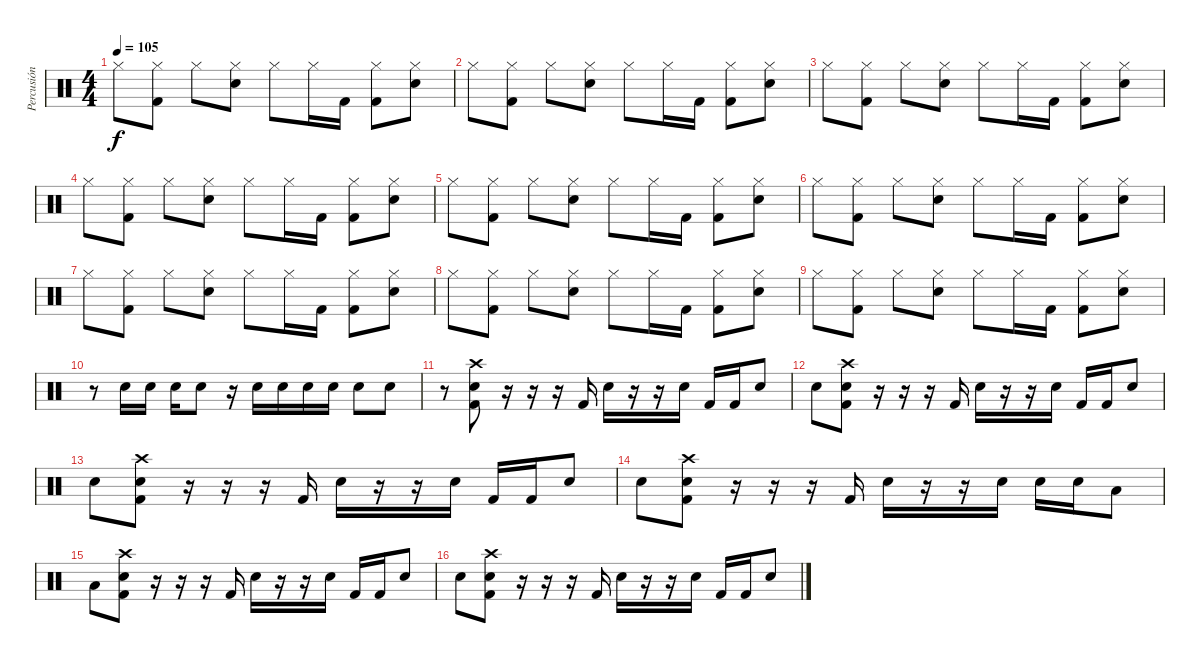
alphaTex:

\track ("Percusión" "Percusión") {instrument percussion}
\staff {score}
\articulation defaults
\ts (4 4)
\tempo 105
\clef neutral
\ks c "Hi-Hat (closed)".8{dy f}
("Hi-Hat (closed)" "Kick (hit) 2").8 "Hi-Hat (closed)".8 ("Hi-Hat (closed)" "Electric Snare (hit)").8 "Hi-Hat (closed)".8 "Hi-Hat (closed)".16 "Kick (hit) 2".16 ("Hi-Hat (closed)" "Kick (hit) 2").8 ("Hi-Hat (closed)" "Electric Snare (hit)").8 |
"Hi-Hat (closed)".8 ("Hi-Hat (closed)" "Kick (hit) 2").8 "Hi-Hat (closed)".8 ("Hi-Hat (closed)" "Electric Snare (hit)").8 "Hi-Hat (closed)".8 "Hi-Hat (closed)".16 "Kick (hit) 2".16 ("Hi-Hat (closed)" "Kick (hit) 2").8 ("Hi-Hat (closed)" "Electric Snare (hit)").8 |
"Hi-Hat (closed)".8 ("Hi-Hat (closed)" "Kick (hit) 2").8 "Hi-Hat (closed)".8 ("Hi-Hat (closed)" "Electric Snare (hit)").8 "Hi-Hat (closed)".8 "Hi-Hat (closed)".16 "Kick (hit) 2".16 ("Hi-Hat (closed)" "Kick (hit) 2").8 ("Hi-Hat (closed)" "Electric Snare (hit)").8 |
"Hi-Hat (closed)".8 ("Hi-Hat (closed)" "Kick (hit) 2").8 "Hi-Hat (closed)".8 ("Hi-Hat (closed)" "Electric Snare (hit)").8 "Hi-Hat (closed)".8 "Hi-Hat (closed)".16 "Kick (hit) 2".16 ("Hi-Hat (closed)" "Kick (hit) 2").8 ("Hi-Hat (closed)" "Electric Snare (hit)").8 |
"Hi-Hat (closed)".8 ("Hi-Hat (closed)" "Kick (hit) 2").8 "Hi-Hat (closed)".8 ("Hi-Hat (closed)" "Electric Snare (hit)").8 "Hi-Hat (closed)".8 "Hi-Hat (closed)".16 "Kick (hit) 2".16 ("Hi-Hat (closed)" "Kick (hit) 2").8 ("Hi-Hat (closed)" "Electric Snare (hit)").8 |
"Hi-Hat (closed)".8 ("Hi-Hat (closed)" "Kick (hit) 2").8 "Hi-Hat (closed)".8 ("Hi-Hat (closed)" "Electric Snare (hit)").8 "Hi-Hat (closed)".8 "Hi-Hat (closed)".16 "Kick (hit) 2".16 ("Hi-Hat (closed)" "Kick (hit) 2").8 ("Hi-Hat (closed)" "Electric Snare (hit)").8 |
"Hi-Hat (closed)".8 ("Hi-Hat (closed)" "Kick (hit) 2").8 "Hi-Hat (closed)".8 ("Hi-Hat (closed)" "Electric Snare (hit)").8 "Hi-Hat (closed)".8 "Hi-Hat (closed)".16 "Kick (hit) 2".16 ("Hi-Hat (closed)" "Kick (hit) 2").8 ("Hi-Hat (closed)" "Electric Snare (hit)").8 |
"Hi-Hat (closed)".8 ("Hi-Hat (closed)" "Kick (hit) 2").8 "Hi-Hat (closed)".8 ("Hi-Hat (closed)" "Electric Snare (hit)").8 "Hi-Hat (closed)".8 "Hi-Hat (closed)".16 "Kick (hit) 2".16 ("Hi-Hat (closed)" "Kick (hit) 2").8 ("Hi-Hat (closed)" "Electric Snare (hit)").8 |
"Hi-Hat (closed)".8 ("Hi-Hat (closed)" "Kick (hit) 2").8 "Hi-Hat (closed)".8 ("Hi-Hat (closed)" "Electric Snare (hit)").8 "Hi-Hat (closed)".8 "Hi-Hat (closed)".16 "Kick (hit) 2".16 ("Hi-Hat (closed)" "Kick (hit) 2").8 ("Hi-Hat (closed)" "Electric Snare (hit)").8 |
r.8 "Electric Snare (hit)".16 "Electric Snare (hit)".16 "Electric Snare (hit)".16 "Electric Snare (hit)".8 r.16 "Electric Snare (hit)".16 "Electric Snare (hit)".16 "Electric Snare (hit)".16 "Electric Snare (hit)".16 "Snare (hit)".8 "Snare (hit)".8 |
r.8 ("Crash high (hit)" "Electric Snare (hit)" "Kick (hit) 2").8 r.16 r.16 r.16 "Kick (hit) 2".16 "Electric Snare (hit)".16 r.16 r.16 "Electric Snare (hit)".16 "Kick (hit) 2".16 "Kick (hit) 2".16 "Electric Snare (hit)".8 |
"Electric Snare (hit)".8 ("Crash high (hit)" "Electric Snare (hit)" "Kick (hit) 2").8 r.16 r.16 r.16 "Kick (hit) 2".16 "Electric Snare (hit)".16 r.16 r.16 "Electric Snare (hit)".16 "Kick (hit) 2".16 "Kick (hit) 2".16 "Electric Snare (hit)".8 |
"Electric Snare (hit)".8 ("Crash high (hit)" "Electric Snare (hit)" "Kick (hit) 2").8 r.16 r.16 r.16 "Kick (hit) 2".16 "Electric Snare (hit)".16 r.16 r.16 "Electric Snare (hit)".16 "Kick (hit) 2".16 "Kick (hit) 2".16 "Electric Snare (hit)".8 |
"Electric Snare (hit)".8 ("Crash high (hit)" "Electric Snare (hit)" "Kick (hit) 2").8 r.16 r.16 r.16 "Kick (hit) 2".16 "Electric Snare (hit)".16 r.16 r.16 "Electric Snare (hit)".16 "Electric Snare (hit)".16 "Electric Snare (hit)".16 "Low Tom (hit)".8 |
"Low Tom (hit)".8 ("Crash high (hit)" "Electric Snare (hit)" "Kick (hit) 2").8 r.16 r.16 r.16 "Kick (hit) 2".16 "Electric Snare (hit)".16 r.16 r.16 "Electric Snare (hit)".16 "Kick (hit) 2".16 "Kick (hit) 2".16 "Electric Snare (hit)".8 |
"Electric Snare (hit)".8 ("Crash high (hit)" "Electric Snare (hit)" "Kick (hit) 2").8 r.16 r.16 r.16 "Kick (hit) 2".16 "Electric Snare (hit)".16 r.16 r.16 "Electric Snare (hit)".16 "Kick (hit) 2".16 "Kick (hit) 2".16 "Electric Snare (hit)".8
